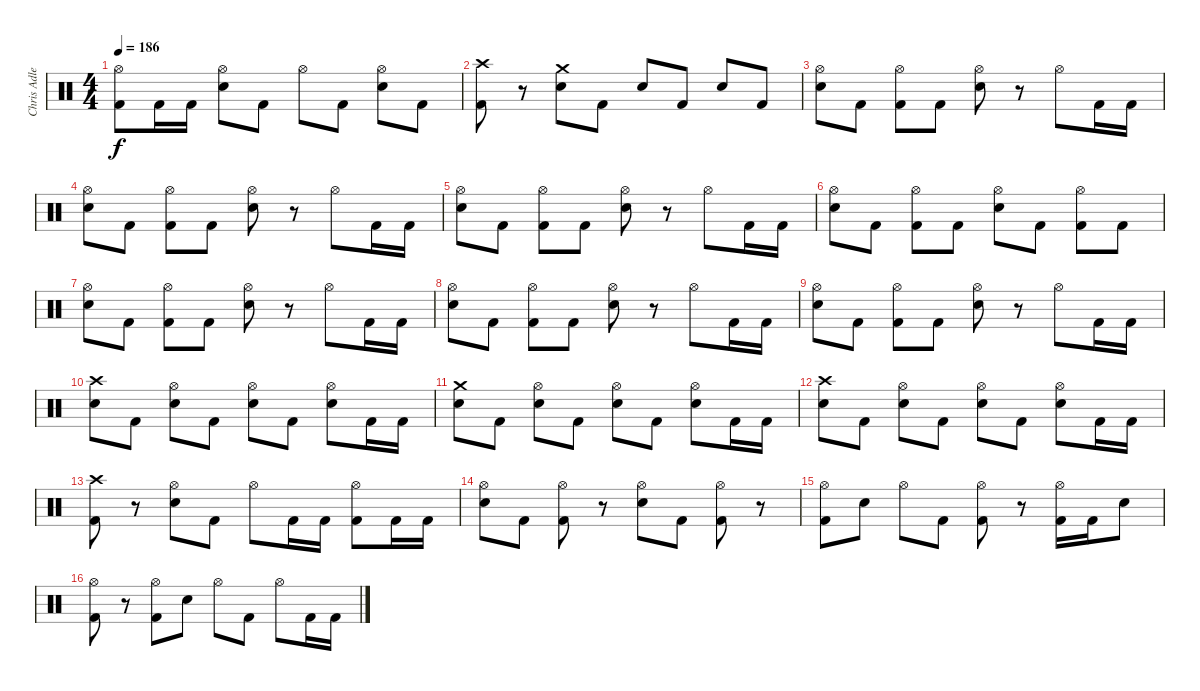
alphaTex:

\track ("Chris Adler" "Chris Adle") {instrument percussion}
\staff {score}
\articulation defaults
\ts (4 4)
\tempo 186
\clef neutral
\ks c
("Hi-Hat (open)" "Kick (hit) 2").8{dy f} "Kick (hit) 2".16 "Kick (hit) 2".16 ("Hi-Hat (open)" "Electric Snare (hit)").8 "Kick (hit) 2".8 "Hi-Hat (open)".8 "Kick (hit) 2".8 ("Hi-Hat (open)" "Electric Snare (hit)").8 "Kick (hit) 2".8 |
("Crash high (hit)" "Kick (hit) 2").8 r.8 ("Crash medium (hit)" "Electric Snare (hit)").8 "Kick (hit) 2".8 "Electric Snare (hit)".8 "Kick (hit) 2".8 "Electric Snare (hit)".8 "Kick (hit) 2".8 |
("Hi-Hat (open)" "Electric Snare (hit)").8 "Kick (hit) 2".8 ("Hi-Hat (open)" "Kick (hit) 2").8 "Kick (hit) 2".8 ("Hi-Hat (open)" "Electric Snare (hit)").8 r.8 "Hi-Hat (open)".8 "Kick (hit) 2".16 "Kick (hit) 2".16 |
("Hi-Hat (open)" "Electric Snare (hit)").8 "Kick (hit) 2".8 ("Hi-Hat (open)" "Kick (hit) 2").8 "Kick (hit) 2".8 ("Hi-Hat (open)" "Electric Snare (hit)").8 r.8 "Hi-Hat (open)".8 "Kick (hit) 2".16 "Kick (hit) 2".16 |
("Hi-Hat (open)" "Electric Snare (hit)").8 "Kick (hit) 2".8 ("Hi-Hat (open)" "Kick (hit) 2").8 "Kick (hit) 2".8 ("Hi-Hat (open)" "Electric Snare (hit)").8 r.8 "Hi-Hat (open)".8 "Kick (hit) 2".16 "Kick (hit) 2".16 |
("Hi-Hat (open)" "Electric Snare (hit)").8 "Kick (hit) 2".8 ("Hi-Hat (open)" "Kick (hit) 2").8 "Kick (hit) 2".8 ("Hi-Hat (open)" "Electric Snare (hit)").8 "Kick (hit) 2".8 ("Hi-Hat (open)" "Kick (hit) 2").8 "Kick (hit) 2".8 |
("Hi-Hat (open)" "Electric Snare (hit)").8 "Kick (hit) 2".8 ("Hi-Hat (open)" "Kick (hit) 2").8 "Kick (hit) 2".8 ("Hi-Hat (open)" "Electric Snare (hit)").8 r.8 "Hi-Hat (open)".8 "Kick (hit) 2".16 "Kick (hit) 2".16 |
("Hi-Hat (open)" "Electric Snare (hit)").8 "Kick (hit) 2".8 ("Hi-Hat (open)" "Kick (hit) 2").8 "Kick (hit) 2".8 ("Hi-Hat (open)" "Electric Snare (hit)").8 r.8 "Hi-Hat (open)".8 "Kick (hit) 2".16 "Kick (hit) 2".16 |
("Hi-Hat (open)" "Electric Snare (hit)").8 "Kick (hit) 2".8 ("Hi-Hat (open)" "Kick (hit) 2").8 "Kick (hit) 2".8 ("Hi-Hat (open)" "Electric Snare (hit)").8 r.8 "Hi-Hat (open)".8 "Kick (hit) 2".16 "Kick (hit) 2".16 |
("Crash high (hit)" "Electric Snare (hit)").8 "Kick (hit) 2".8 ("Hi-Hat (open)" "Electric Snare (hit)").8 "Kick (hit) 2".8 ("Hi-Hat (open)" "Electric Snare (hit)").8 "Kick (hit) 2".8 ("Hi-Hat (open)" "Electric Snare (hit)").8 "Kick (hit) 2".16 "Kick (hit) 2".16 |
("Crash medium (hit)" "Electric Snare (hit)").8 "Kick (hit) 2".8 ("Hi-Hat (open)" "Electric Snare (hit)").8 "Kick (hit) 2".8 ("Hi-Hat (open)" "Electric Snare (hit)").8 "Kick (hit) 2".8 ("Hi-Hat (open)" "Electric Snare (hit)").8 "Kick (hit) 2".16 "Kick (hit) 2".16 |
("Crash high (hit)" "Electric Snare (hit)").8 "Kick (hit) 2".8 ("Hi-Hat (open)" "Electric Snare (hit)").8 "Kick (hit) 2".8 ("Hi-Hat (open)" "Electric Snare (hit)").8 "Kick (hit) 2".8 ("Hi-Hat (open)" "Electric Snare (hit)").8 "Kick (hit) 2".16 "Kick (hit) 2".16 |
("Crash high (hit)" "Kick (hit) 2").8 r.8 ("Hi-Hat (open)" "Electric Snare (hit)").8 "Kick (hit) 2".8 "Hi-Hat (open)".8 "Kick (hit) 2".16 "Kick (hit) 2".16 ("Hi-Hat (open)" "Kick (hit) 2").8 "Kick (hit) 2".16 "Kick (hit) 2".16 |
("Hi-Hat (open)" "Electric Snare (hit)").8 "Kick (hit) 2".8 ("Hi-Hat (open)" "Kick (hit) 2").8 r.8 ("Hi-Hat (open)" "Electric Snare (hit)").8 "Kick (hit) 2".8 ("Hi-Hat (open)" "Kick (hit) 2").8 r.8 |
("Hi-Hat (open)" "Kick (hit) 2").8 "Electric Snare (hit)".8 "Hi-Hat (open)".8 "Kick (hit) 2".8 ("Hi-Hat (open)" "Kick (hit) 2").8 r.8 ("Hi-Hat (open)" "Kick (hit) 2").16 "Kick (hit) 2".16 "Electric Snare (hit)".8 |
("Hi-Hat (open)" "Kick (hit) 2").8 r.8 ("Hi-Hat (open)" "Kick (hit) 2").8 "Electric Snare (hit)".8 "Hi-Hat (open)".8 "Kick (hit) 2".8 "Hi-Hat (open)".8 "Kick (hit) 2".16 "Kick (hit) 2".16
